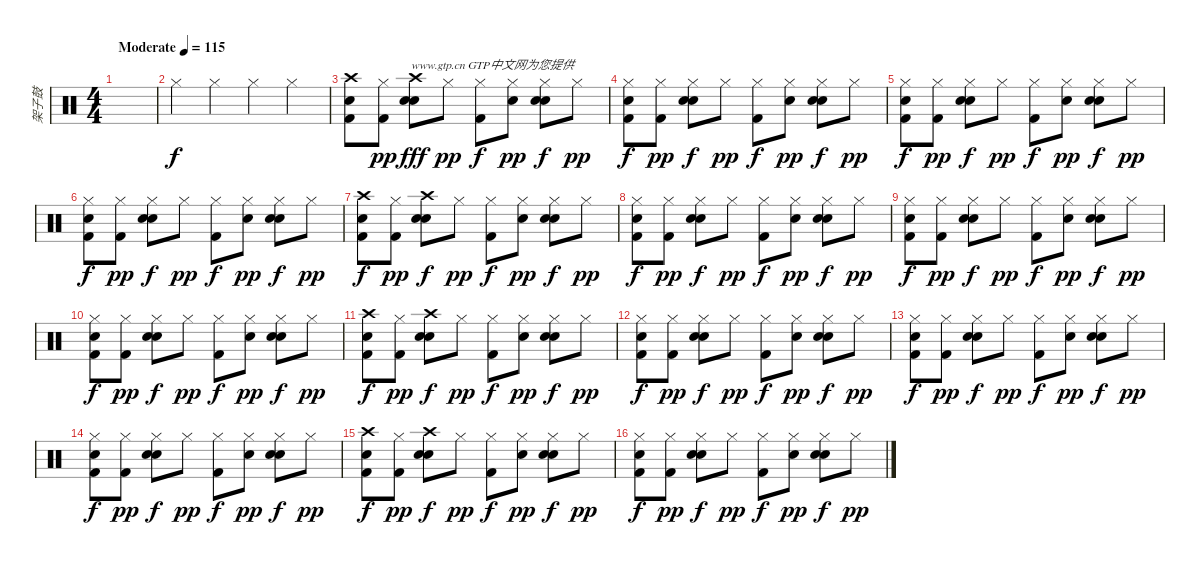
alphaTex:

\track ("架子鼓" "架子鼓") {instrument percussion}
\staff {score}
\articulation defaults
\ts (4 4)
\tempo (115 "Moderate")
\clef neutral
\ks c
|
"Hi-Hat (closed)".4 "Hi-Hat (closed)".4 "Hi-Hat (closed)".4 "Hi-Hat (closed)".4 |
("Crash high (hit)" "Electric Snare (hit)" "Kick (hit) 2").8{txt "                    www.gtp.cn GTP中文网为您提供"} ("Hi-Hat (closed)" "Kick (hit) 2").8{dy pp} ("Crash high (hit)" "Snare (hit) 2" "Electric Snare (hit)").8{dy fff} "Hi-Hat (closed)".8{dy pp} ("Hi-Hat (closed)" "Kick (hit) 2").8{dy f} ("Hi-Hat (closed)" "Snare (hit) 2").8{dy pp} ("Hi-Hat (closed)" "Snare (hit) 2" "Electric Snare (hit)").8{dy f} "Hi-Hat (closed)".8{dy pp} |
("Hi-Hat (closed)" "Electric Snare (hit)" "Kick (hit) 2").8{dy f} ("Hi-Hat (closed)" "Kick (hit) 2").8{dy pp} ("Hi-Hat (closed)" "Snare (hit) 2" "Electric Snare (hit)").8{dy f} "Hi-Hat (closed)".8{dy pp} ("Hi-Hat (closed)" "Kick (hit) 2").8{dy f} ("Hi-Hat (closed)" "Snare (hit) 2").8{dy pp} ("Hi-Hat (closed)" "Snare (hit) 2" "Electric Snare (hit)").8{dy f} "Hi-Hat (closed)".8{dy pp} |
("Hi-Hat (closed)" "Electric Snare (hit)" "Kick (hit) 2").8{dy f} ("Hi-Hat (closed)" "Kick (hit) 2").8{dy pp} ("Hi-Hat (closed)" "Snare (hit) 2" "Electric Snare (hit)").8{dy f} "Hi-Hat (closed)".8{dy pp} ("Hi-Hat (closed)" "Kick (hit) 2").8{dy f} ("Hi-Hat (closed)" "Snare (hit) 2").8{dy pp} ("Hi-Hat (closed)" "Snare (hit) 2" "Electric Snare (hit)").8{dy f} "Hi-Hat (closed)".8{dy pp} |
("Hi-Hat (closed)" "Electric Snare (hit)" "Kick (hit) 2").8{dy f} ("Hi-Hat (closed)" "Kick (hit) 2").8{dy pp} ("Hi-Hat (closed)" "Snare (hit) 2" "Electric Snare (hit)").8{dy f} "Hi-Hat (closed)".8{dy pp} ("Hi-Hat (closed)" "Kick (hit) 2").8{dy f} ("Hi-Hat (closed)" "Snare (hit) 2").8{dy pp} ("Hi-Hat (closed)" "Snare (hit) 2" "Electric Snare (hit)").8{dy f} "Hi-Hat (closed)".8{dy pp} |
("Crash high (hit)" "Electric Snare (hit)" "Kick (hit) 2").8{dy f} ("Hi-Hat (closed)" "Kick (hit) 2").8{dy pp} ("Crash high (hit)" "Snare (hit) 2" "Electric Snare (hit)").8{dy f} "Hi-Hat (closed)".8{dy pp} ("Hi-Hat (closed)" "Kick (hit) 2").8{dy f} ("Hi-Hat (closed)" "Snare (hit) 2").8{dy pp} ("Hi-Hat (closed)" "Snare (hit) 2" "Electric Snare (hit)").8{dy f} "Hi-Hat (closed)".8{dy pp} |
("Hi-Hat (closed)" "Electric Snare (hit)" "Kick (hit) 2").8{dy f} ("Hi-Hat (closed)" "Kick (hit) 2").8{dy pp} ("Hi-Hat (closed)" "Snare (hit) 2" "Electric Snare (hit)").8{dy f} "Hi-Hat (closed)".8{dy pp} ("Hi-Hat (closed)" "Kick (hit) 2").8{dy f} ("Hi-Hat (closed)" "Snare (hit) 2").8{dy pp} ("Hi-Hat (closed)" "Snare (hit) 2" "Electric Snare (hit)").8{dy f} "Hi-Hat (closed)".8{dy pp} |
("Hi-Hat (closed)" "Electric Snare (hit)" "Kick (hit) 2").8{dy f} ("Hi-Hat (closed)" "Kick (hit) 2").8{dy pp} ("Hi-Hat (closed)" "Snare (hit) 2" "Electric Snare (hit)").8{dy f} "Hi-Hat (closed)".8{dy pp} ("Hi-Hat (closed)" "Kick (hit) 2").8{dy f} ("Hi-Hat (closed)" "Snare (hit) 2").8{dy pp} ("Hi-Hat (closed)" "Snare (hit) 2" "Electric Snare (hit)").8{dy f} "Hi-Hat (closed)".8{dy pp} |
("Hi-Hat (closed)" "Electric Snare (hit)" "Kick (hit) 2").8{dy f} ("Hi-Hat (closed)" "Kick (hit) 2").8{dy pp} ("Hi-Hat (closed)" "Snare (hit) 2" "Electric Snare (hit)").8{dy f} "Hi-Hat (closed)".8{dy pp} ("Hi-Hat (closed)" "Kick (hit) 2").8{dy f} ("Hi-Hat (closed)" "Snare (hit) 2").8{dy pp} ("Hi-Hat (closed)" "Snare (hit) 2" "Electric Snare (hit)").8{dy f} "Hi-Hat (closed)".8{dy pp} |
("Crash high (hit)" "Electric Snare (hit)" "Kick (hit) 2").8{dy f} ("Hi-Hat (closed)" "Kick (hit) 2").8{dy pp} ("Crash high (hit)" "Snare (hit) 2" "Electric Snare (hit)").8{dy f} "Hi-Hat (closed)".8{dy pp} ("Hi-Hat (closed)" "Kick (hit) 2").8{dy f} ("Hi-Hat (closed)" "Snare (hit) 2").8{dy pp} ("Hi-Hat (closed)" "Snare (hit) 2" "Electric Snare (hit)").8{dy f} "Hi-Hat (closed)".8{dy pp} |
("Hi-Hat (closed)" "Electric Snare (hit)" "Kick (hit) 2").8{dy f} ("Hi-Hat (closed)" "Kick (hit) 2").8{dy pp} ("Hi-Hat (closed)" "Snare (hit) 2" "Electric Snare (hit)").8{dy f} "Hi-Hat (closed)".8{dy pp} ("Hi-Hat (closed)" "Kick (hit) 2").8{dy f} ("Hi-Hat (closed)" "Snare (hit) 2").8{dy pp} ("Hi-Hat (closed)" "Snare (hit) 2" "Electric Snare (hit)").8{dy f} "Hi-Hat (closed)".8{dy pp} |
("Hi-Hat (closed)" "Electric Snare (hit)" "Kick (hit) 2").8{dy f} ("Hi-Hat (closed)" "Kick (hit) 2").8{dy pp} ("Hi-Hat (closed)" "Snare (hit) 2" "Electric Snare (hit)").8{dy f} "Hi-Hat (closed)".8{dy pp} ("Hi-Hat (closed)" "Kick (hit) 2").8{dy f} ("Hi-Hat (closed)" "Snare (hit) 2").8{dy pp} ("Hi-Hat (closed)" "Snare (hit) 2" "Electric Snare (hit)").8{dy f} "Hi-Hat (closed)".8{dy pp} |
("Hi-Hat (closed)" "Electric Snare (hit)" "Kick (hit) 2").8{dy f} ("Hi-Hat (closed)" "Kick (hit) 2").8{dy pp} ("Hi-Hat (closed)" "Snare (hit) 2" "Electric Snare (hit)").8{dy f} "Hi-Hat (closed)".8{dy pp} ("Hi-Hat (closed)" "Kick (hit) 2").8{dy f} ("Hi-Hat (closed)" "Snare (hit) 2").8{dy pp} ("Hi-Hat (closed)" "Snare (hit) 2" "Electric Snare (hit)").8{dy f} "Hi-Hat (closed)".8{dy pp} |
("Crash high (hit)" "Electric Snare (hit)" "Kick (hit) 2").8{dy f} ("Hi-Hat (closed)" "Kick (hit) 2").8{dy pp} ("Crash high (hit)" "Snare (hit) 2" "Electric Snare (hit)").8{dy f} "Hi-Hat (closed)".8{dy pp} ("Hi-Hat (closed)" "Kick (hit) 2").8{dy f} ("Hi-Hat (closed)" "Snare (hit) 2").8{dy pp} ("Hi-Hat (closed)" "Snare (hit) 2" "Electric Snare (hit)").8{dy f} "Hi-Hat (closed)".8{dy pp} |
("Hi-Hat (closed)" "Electric Snare (hit)" "Kick (hit) 2").8{dy f} ("Hi-Hat (closed)" "Kick (hit) 2").8{dy pp} ("Hi-Hat (closed)" "Snare (hit) 2" "Electric Snare (hit)").8{dy f} "Hi-Hat (closed)".8{dy pp} ("Hi-Hat (closed)" "Kick (hit) 2").8{dy f} ("Hi-Hat (closed)" "Snare (hit) 2").8{dy pp} ("Hi-Hat (closed)" "Snare (hit) 2" "Electric Snare (hit)").8{dy f} "Hi-Hat (closed)".8{dy pp}
